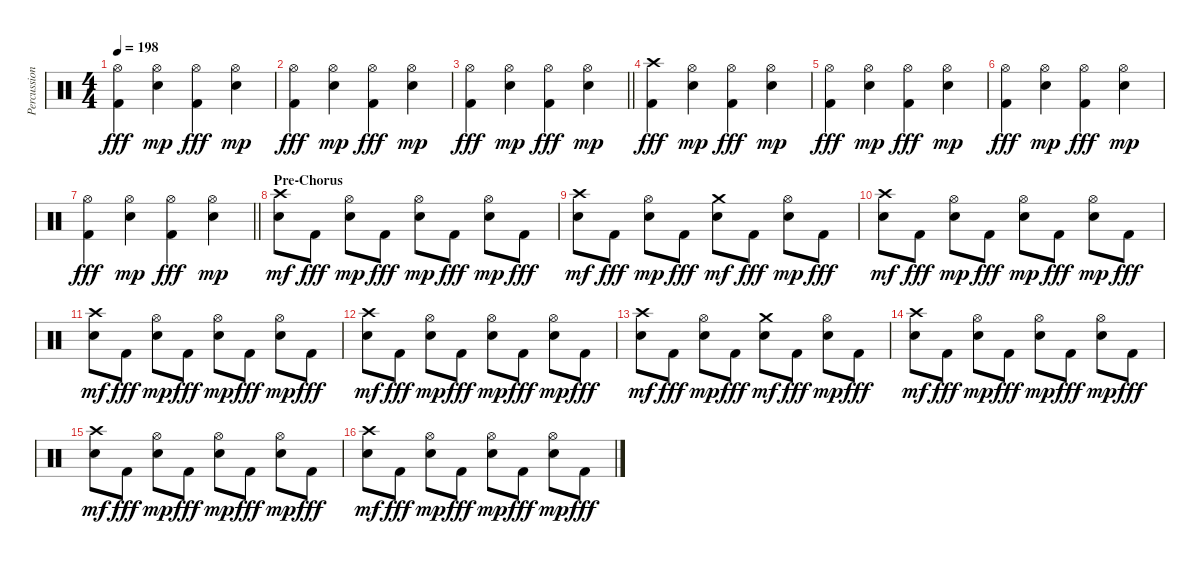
\track ("Percussion" "Percussion") {instrument percussion}
\staff {score}
\articulation defaults
\ts (4 4)
\tempo 198
\clef neutral
\ks c
("Hi-Hat (open)" "Kick (hit) 2").4{dy fff} ("Hi-Hat (open)" "Snare (hit) 2").4{dy mp} ("Hi-Hat (open)" "Kick (hit) 2").4{dy fff} ("Hi-Hat (open)" "Snare (hit) 2").4{dy mp} |
("Hi-Hat (open)" "Kick (hit) 2").4{dy fff} ("Hi-Hat (open)" "Snare (hit) 2").4{dy mp} ("Hi-Hat (open)" "Kick (hit) 2").4{dy fff} ("Hi-Hat (open)" "Snare (hit) 2").4{dy mp} |
\barLineRight lightlight
("Hi-Hat (open)" "Kick (hit) 2").4{dy fff} ("Hi-Hat (open)" "Snare (hit) 2").4{dy mp} ("Hi-Hat (open)" "Kick (hit) 2").4{dy fff} ("Hi-Hat (open)" "Snare (hit) 2").4{dy mp} |
("Crash high (hit)" "Kick (hit) 2").4{dy fff} ("Hi-Hat (open)" "Snare (hit) 2").4{dy mp} ("Hi-Hat (open)" "Kick (hit) 2").4{dy fff} ("Hi-Hat (open)" "Snare (hit) 2").4{dy mp} |
("Hi-Hat (open)" "Kick (hit) 2").4{dy fff} ("Hi-Hat (open)" "Snare (hit) 2").4{dy mp} ("Hi-Hat (open)" "Kick (hit) 2").4{dy fff} ("Hi-Hat (open)" "Snare (hit) 2").4{dy mp} |
("Hi-Hat (open)" "Kick (hit) 2").4{dy fff} ("Hi-Hat (open)" "Snare (hit) 2").4{dy mp} ("Hi-Hat (open)" "Kick (hit) 2").4{dy fff} ("Hi-Hat (open)" "Snare (hit) 2").4{dy mp} |
\barLineRight lightlight
("Hi-Hat (open)" "Kick (hit) 2").4{dy fff} ("Hi-Hat (open)" "Snare (hit) 2").4{dy mp} ("Hi-Hat (open)" "Kick (hit) 2").4{dy fff} ("Hi-Hat (open)" "Snare (hit) 2").4{dy mp} |
\section ("" "Pre-Chorus")
("Crash high (hit)" "Snare (hit) 2").8{dy mf} "Kick (hit) 2".8{dy fff} ("Hi-Hat (open)" "Snare (hit) 2").8{dy mp} "Kick (hit) 2".8{dy fff} ("Hi-Hat (open)" "Snare (hit) 2").8{dy mp} "Kick (hit) 2".8{dy fff} ("Hi-Hat (open)" "Snare (hit) 2").8{dy mp} "Kick (hit) 2".8{dy fff} |
("Crash high (hit)" "Snare (hit) 2").8{dy mf} "Kick (hit) 2".8{dy fff} ("Hi-Hat (open)" "Snare (hit) 2").8{dy mp} "Kick (hit) 2".8{dy fff} ("Crash medium (hit)" "Snare (hit) 2").8{dy mf} "Kick (hit) 2".8{dy fff} ("Hi-Hat (open)" "Snare (hit) 2").8{dy mp} "Kick (hit) 2".8{dy fff} |
("Crash high (hit)" "Snare (hit) 2").8{dy mf} "Kick (hit) 2".8{dy fff} ("Hi-Hat (open)" "Snare (hit) 2").8{dy mp} "Kick (hit) 2".8{dy fff} ("Hi-Hat (open)" "Snare (hit) 2").8{dy mp} "Kick (hit) 2".8{dy fff} ("Hi-Hat (open)" "Snare (hit) 2").8{dy mp} "Kick (hit) 2".8{dy fff} |
("Crash high (hit)" "Snare (hit) 2").8{dy mf} "Kick (hit) 2".8{dy fff} ("Hi-Hat (open)" "Snare (hit) 2").8{dy mp} "Kick (hit) 2".8{dy fff} ("Hi-Hat (open)" "Snare (hit) 2").8{dy mp} "Kick (hit) 2".8{dy fff} ("Hi-Hat (open)" "Snare (hit) 2").8{dy mp} "Kick (hit) 2".8{dy fff} |
("Crash high (hit)" "Snare (hit) 2").8{dy mf} "Kick (hit) 2".8{dy fff} ("Hi-Hat (open)" "Snare (hit) 2").8{dy mp} "Kick (hit) 2".8{dy fff} ("Hi-Hat (open)" "Snare (hit) 2").8{dy mp} "Kick (hit) 2".8{dy fff} ("Hi-Hat (open)" "Snare (hit) 2").8{dy mp} "Kick (hit) 2".8{dy fff} |
("Crash high (hit)" "Snare (hit) 2").8{dy mf} "Kick (hit) 2".8{dy fff} ("Hi-Hat (open)" "Snare (hit) 2").8{dy mp} "Kick (hit) 2".8{dy fff} ("Crash medium (hit)" "Snare (hit) 2").8{dy mf} "Kick (hit) 2".8{dy fff} ("Hi-Hat (open)" "Snare (hit) 2").8{dy mp} "Kick (hit) 2".8{dy fff} |
("Crash high (hit)" "Snare (hit) 2").8{dy mf} "Kick (hit) 2".8{dy fff} ("Hi-Hat (open)" "Snare (hit) 2").8{dy mp} "Kick (hit) 2".8{dy fff} ("Hi-Hat (open)" "Snare (hit) 2").8{dy mp} "Kick (hit) 2".8{dy fff} ("Hi-Hat (open)" "Snare (hit) 2").8{dy mp} "Kick (hit) 2".8{dy fff} |
("Crash high (hit)" "Snare (hit) 2").8{dy mf} "Kick (hit) 2".8{dy fff} ("Hi-Hat (open)" "Snare (hit) 2").8{dy mp} "Kick (hit) 2".8{dy fff} ("Hi-Hat (open)" "Snare (hit) 2").8{dy mp} "Kick (hit) 2".8{dy fff} ("Hi-Hat (open)" "Snare (hit) 2").8{dy mp} "Kick (hit) 2".8{dy fff} |
("Crash high (hit)" "Snare (hit) 2").8{dy mf} "Kick (hit) 2".8{dy fff} ("Hi-Hat (open)" "Snare (hit) 2").8{dy mp} "Kick (hit) 2".8{dy fff} ("Hi-Hat (open)" "Snare (hit) 2").8{dy mp} "Kick (hit) 2".8{dy fff} ("Hi-Hat (open)" "Snare (hit) 2").8{dy mp} "Kick (hit) 2".8{dy fff}
